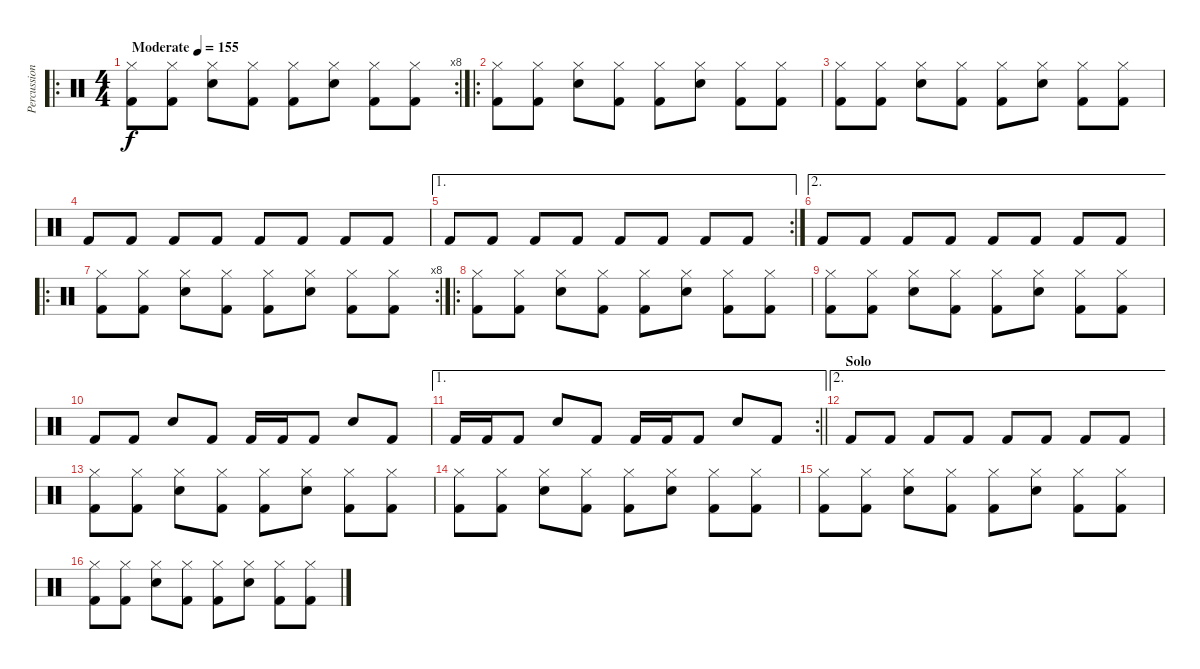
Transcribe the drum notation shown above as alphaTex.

\track ("Percussion" "Percussion") {instrument percussion}
\staff {score}
\articulation defaults
\ro
\rc 8
\ts (4 4)
\tempo (155 "Moderate")
\clef neutral
\ks c
("Hi-Hat (closed)" "Kick (hit) 2").8{dy f} ("Hi-Hat (closed)" "Kick (hit) 2").8 ("Hi-Hat (closed)" "Electric Snare (hit)").8 ("Hi-Hat (closed)" "Kick (hit) 2").8 ("Hi-Hat (closed)" "Kick (hit) 2").8 ("Hi-Hat (closed)" "Electric Snare (hit)").8 ("Hi-Hat (closed)" "Kick (hit) 2").8 ("Hi-Hat (closed)" "Kick (hit) 2").8 |
\ro
("Hi-Hat (closed)" "Kick (hit) 2").8 ("Hi-Hat (closed)" "Kick (hit) 2").8 ("Hi-Hat (closed)" "Electric Snare (hit)").8 ("Hi-Hat (closed)" "Kick (hit) 2").8 ("Hi-Hat (closed)" "Kick (hit) 2").8 ("Hi-Hat (closed)" "Electric Snare (hit)").8 ("Hi-Hat (closed)" "Kick (hit) 2").8 ("Hi-Hat (closed)" "Kick (hit) 2").8 |
("Hi-Hat (closed)" "Kick (hit) 2").8 ("Hi-Hat (closed)" "Kick (hit) 2").8 ("Hi-Hat (closed)" "Electric Snare (hit)").8 ("Hi-Hat (closed)" "Kick (hit) 2").8 ("Hi-Hat (closed)" "Kick (hit) 2").8 ("Hi-Hat (closed)" "Electric Snare (hit)").8 ("Hi-Hat (closed)" "Kick (hit) 2").8 ("Hi-Hat (closed)" "Kick (hit) 2").8 |
"Kick (hit) 2".8 "Kick (hit) 2".8 "Kick (hit) 2".8 "Kick (hit) 2".8 "Kick (hit) 2".8 "Kick (hit) 2".8 "Kick (hit) 2".8 "Kick (hit) 2".8 |
\ae 1
\rc 2 "Kick (hit) 2".8 "Kick (hit) 2".8 "Kick (hit) 2".8 "Kick (hit) 2".8 "Kick (hit) 2".8 "Kick (hit) 2".8 "Kick (hit) 2".8 "Kick (hit) 2".8
|
\ae 2 "Kick (hit) 2".8 "Kick (hit) 2".8 "Kick (hit) 2".8 "Kick (hit) 2".8 "Kick (hit) 2".8 "Kick (hit) 2".8 "Kick (hit) 2".8 "Kick (hit) 2".8
|
\ro
\rc 8
("Hi-Hat (closed)" "Kick (hit) 2").8 ("Hi-Hat (closed)" "Kick (hit) 2").8 ("Hi-Hat (closed)" "Electric Snare (hit)").8 ("Hi-Hat (closed)" "Kick (hit) 2").8 ("Hi-Hat (closed)" "Kick (hit) 2").8 ("Hi-Hat (closed)" "Electric Snare (hit)").8 ("Hi-Hat (closed)" "Kick (hit) 2").8 ("Hi-Hat (closed)" "Kick (hit) 2").8 |
\ro
("Hi-Hat (closed)" "Kick (hit) 2").8 ("Hi-Hat (closed)" "Kick (hit) 2").8 ("Hi-Hat (closed)" "Electric Snare (hit)").8 ("Hi-Hat (closed)" "Kick (hit) 2").8 ("Hi-Hat (closed)" "Kick (hit) 2").8 ("Hi-Hat (closed)" "Electric Snare (hit)").8 ("Hi-Hat (closed)" "Kick (hit) 2").8 ("Hi-Hat (closed)" "Kick (hit) 2").8 |
("Hi-Hat (closed)" "Kick (hit) 2").8 ("Hi-Hat (closed)" "Kick (hit) 2").8 ("Hi-Hat (closed)" "Electric Snare (hit)").8 ("Hi-Hat (closed)" "Kick (hit) 2").8 ("Hi-Hat (closed)" "Kick (hit) 2").8 ("Hi-Hat (closed)" "Electric Snare (hit)").8 ("Hi-Hat (closed)" "Kick (hit) 2").8 ("Hi-Hat (closed)" "Kick (hit) 2").8 |
"Kick (hit) 2".8 "Kick (hit) 2".8 "Electric Snare (hit)".8 "Kick (hit) 2".8 "Kick (hit) 2".16 "Kick (hit) 2".16 "Kick (hit) 2".8 "Electric Snare (hit)".8 "Kick (hit) 2".8 |
\ae 1
\rc 2
\barLineRight lightlight "Kick (hit) 2".16 "Kick (hit) 2".16 "Kick (hit) 2".8 "Electric Snare (hit)".8 "Kick (hit) 2".8 "Kick (hit) 2".16 "Kick (hit) 2".16 "Kick (hit) 2".8 "Electric Snare (hit)".8 "Kick (hit) 2".8
|
\ae 2
\section ("" "Solo")
"Kick (hit) 2".8 "Kick (hit) 2".8 "Kick (hit) 2".8 "Kick (hit) 2".8 "Kick (hit) 2".8 "Kick (hit) 2".8 "Kick (hit) 2".8 "Kick (hit) 2".8 |
("Hi-Hat (closed)" "Kick (hit) 2").8 ("Hi-Hat (closed)" "Kick (hit) 2").8 ("Hi-Hat (closed)" "Electric Snare (hit)").8 ("Hi-Hat (closed)" "Kick (hit) 2").8 ("Hi-Hat (closed)" "Kick (hit) 2").8 ("Hi-Hat (closed)" "Electric Snare (hit)").8 ("Hi-Hat (closed)" "Kick (hit) 2").8 ("Hi-Hat (closed)" "Kick (hit) 2").8 |
("Hi-Hat (closed)" "Kick (hit) 2").8 ("Hi-Hat (closed)" "Kick (hit) 2").8 ("Hi-Hat (closed)" "Electric Snare (hit)").8 ("Hi-Hat (closed)" "Kick (hit) 2").8 ("Hi-Hat (closed)" "Kick (hit) 2").8 ("Hi-Hat (closed)" "Electric Snare (hit)").8 ("Hi-Hat (closed)" "Kick (hit) 2").8 ("Hi-Hat (closed)" "Kick (hit) 2").8 |
("Hi-Hat (closed)" "Kick (hit) 2").8 ("Hi-Hat (closed)" "Kick (hit) 2").8 ("Hi-Hat (closed)" "Electric Snare (hit)").8 ("Hi-Hat (closed)" "Kick (hit) 2").8 ("Hi-Hat (closed)" "Kick (hit) 2").8 ("Hi-Hat (closed)" "Electric Snare (hit)").8 ("Hi-Hat (closed)" "Kick (hit) 2").8 ("Hi-Hat (closed)" "Kick (hit) 2").8 |
("Hi-Hat (closed)" "Kick (hit) 2").8 ("Hi-Hat (closed)" "Kick (hit) 2").8 ("Hi-Hat (closed)" "Electric Snare (hit)").8 ("Hi-Hat (closed)" "Kick (hit) 2").8 ("Hi-Hat (closed)" "Kick (hit) 2").8 ("Hi-Hat (closed)" "Electric Snare (hit)").8 ("Hi-Hat (closed)" "Kick (hit) 2").8 ("Hi-Hat (closed)" "Kick (hit) 2").8
